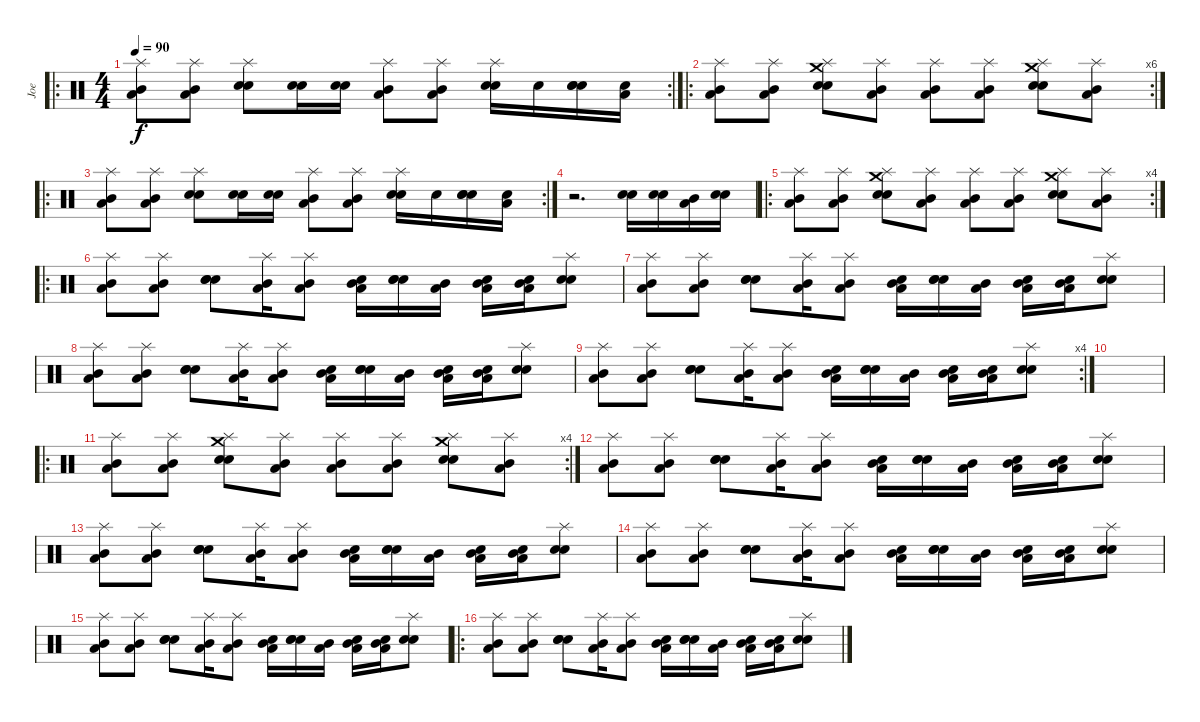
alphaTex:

\track ("Joe" "Joe") {instrument percussion}
\staff {score}
\articulation defaults
\ro
\rc 2
\ts (4 4)
\tempo 90
\clef neutral
\ks c
("Splash (hit)" "Low Floor Tom (hit)" "Mid Tom (hit)").8{dy f} ("Splash (hit)" "Low Floor Tom (hit)" "Mid Tom (hit)").8 ("Splash (hit)" "Snare (hit) 2" "Snare (hit) 2").8 ("Snare (hit) 2" "Snare (hit) 2").16 ("Snare (hit) 2" "Snare (hit) 2").16 ("Splash (hit)" "Low Floor Tom (hit)" "Mid Tom (hit)").8 ("Splash (hit)" "Low Floor Tom (hit)" "Mid Tom (hit)").8 ("Splash (hit)" "Snare (hit) 2" "Snare (hit) 2").16 "Electric Snare (hit)".16 ("Snare (hit) 2" "Snare (hit) 2" "Electric Snare (hit)").16 ("Electric Snare (hit)" "Low Tom (hit)").16 |
\ro
\rc 6
("Splash (hit)" "Low Floor Tom (hit)" "Mid Tom (hit)").8 ("Splash (hit)" "Low Floor Tom (hit)" "Mid Tom (hit)").8 ("Splash (hit)" "Snare (hit) 2" "Snare (hit) 2" "Crash medium (hit)").8 ("Splash (hit)" "Low Floor Tom (hit)" "Mid Tom (hit)").8 ("Splash (hit)" "Low Floor Tom (hit)" "Mid Tom (hit)").8 ("Splash (hit)" "Low Floor Tom (hit)" "Mid Tom (hit)").8 ("Splash (hit)" "Snare (hit) 2" "Snare (hit) 2" "Crash medium (hit)").8 ("Splash (hit)" "Low Floor Tom (hit)" "Mid Tom (hit)").8 |
\ro
\rc 2
("Splash (hit)" "Low Floor Tom (hit)" "Mid Tom (hit)").8 ("Splash (hit)" "Low Floor Tom (hit)" "Mid Tom (hit)").8 ("Splash (hit)" "Snare (hit) 2" "Snare (hit) 2").8 ("Snare (hit) 2" "Snare (hit) 2").16 ("Snare (hit) 2" "Snare (hit) 2").16 ("Splash (hit)" "Low Floor Tom (hit)" "Mid Tom (hit)").8 ("Splash (hit)" "Low Floor Tom (hit)" "Mid Tom (hit)").8 ("Splash (hit)" "Snare (hit) 2" "Snare (hit) 2").16 "Electric Snare (hit)".16 ("Snare (hit) 2" "Snare (hit) 2" "Electric Snare (hit)").16 ("Electric Snare (hit)" "Low Tom (hit)").16 |
r.2{d} ("Snare (hit) 2" "Snare (hit) 2").16 ("Snare (hit) 2" "Snare (hit) 2").16 ("Low Floor Tom (hit)" "Mid Tom (hit)").16 ("Snare (hit) 2" "Snare (hit) 2").16 |
\ro
\rc 4
("Splash (hit)" "Low Floor Tom (hit)" "Mid Tom (hit)").8 ("Splash (hit)" "Low Floor Tom (hit)" "Mid Tom (hit)").8 ("Splash (hit)" "Snare (hit) 2" "Snare (hit) 2" "Crash medium (hit)").8 ("Splash (hit)" "Low Floor Tom (hit)" "Mid Tom (hit)").8 ("Splash (hit)" "Low Floor Tom (hit)" "Mid Tom (hit)").8 ("Splash (hit)" "Low Floor Tom (hit)" "Mid Tom (hit)").8 ("Splash (hit)" "Snare (hit) 2" "Snare (hit) 2" "Crash medium (hit)").8 ("Splash (hit)" "Low Floor Tom (hit)" "Mid Tom (hit)").8 |
\ro
("Splash (hit)" "Low Floor Tom (hit)" "Mid Tom (hit)").8 ("Splash (hit)" "Low Floor Tom (hit)" "Mid Tom (hit)").8 ("Electric Snare (hit)" "Snare (hit) 2" "Snare (hit) 2").8 ("Splash (hit)" "Low Floor Tom (hit)" "Mid Tom (hit)").16 ("Splash (hit)" "Low Floor Tom (hit)" "Mid Tom (hit)").8 ("Electric Snare (hit)" "Low Floor Tom (hit)" "Mid Tom (hit)").16 ("Electric Snare (hit)" "Snare (hit) 2" "Snare (hit) 2").16 ("Low Floor Tom (hit)" "Mid Tom (hit)").16 ("Electric Snare (hit)" "Low Floor Tom (hit)" "Mid Tom (hit)").16 ("Electric Snare (hit)" "Low Floor Tom (hit)" "Mid Tom (hit)").16 ("Splash (hit)" "Snare (hit) 2" "Snare (hit) 2").8 |
("Splash (hit)" "Low Floor Tom (hit)" "Mid Tom (hit)").8 ("Splash (hit)" "Low Floor Tom (hit)" "Mid Tom (hit)").8 ("Electric Snare (hit)" "Snare (hit) 2" "Snare (hit) 2").8 ("Splash (hit)" "Low Floor Tom (hit)" "Mid Tom (hit)").16 ("Splash (hit)" "Low Floor Tom (hit)" "Mid Tom (hit)").8 ("Electric Snare (hit)" "Low Floor Tom (hit)" "Mid Tom (hit)").16 ("Electric Snare (hit)" "Snare (hit) 2" "Snare (hit) 2").16 ("Low Floor Tom (hit)" "Mid Tom (hit)").16 ("Electric Snare (hit)" "Low Floor Tom (hit)" "Mid Tom (hit)").16 ("Electric Snare (hit)" "Low Floor Tom (hit)" "Mid Tom (hit)").16 ("Splash (hit)" "Snare (hit) 2" "Snare (hit) 2").8 |
("Splash (hit)" "Low Floor Tom (hit)" "Mid Tom (hit)").8 ("Splash (hit)" "Low Floor Tom (hit)" "Mid Tom (hit)").8 ("Electric Snare (hit)" "Snare (hit) 2" "Snare (hit) 2").8 ("Splash (hit)" "Low Floor Tom (hit)" "Mid Tom (hit)").16 ("Splash (hit)" "Low Floor Tom (hit)" "Mid Tom (hit)").8 ("Electric Snare (hit)" "Low Floor Tom (hit)" "Mid Tom (hit)").16 ("Electric Snare (hit)" "Snare (hit) 2" "Snare (hit) 2").16 ("Low Floor Tom (hit)" "Mid Tom (hit)").16 ("Electric Snare (hit)" "Low Floor Tom (hit)" "Mid Tom (hit)").16 ("Electric Snare (hit)" "Low Floor Tom (hit)" "Mid Tom (hit)").16 ("Splash (hit)" "Snare (hit) 2" "Snare (hit) 2").8 |
\rc 4
("Splash (hit)" "Low Floor Tom (hit)" "Mid Tom (hit)").8 ("Splash (hit)" "Low Floor Tom (hit)" "Mid Tom (hit)").8 ("Electric Snare (hit)" "Snare (hit) 2" "Snare (hit) 2").8 ("Splash (hit)" "Low Floor Tom (hit)" "Mid Tom (hit)").16 ("Splash (hit)" "Low Floor Tom (hit)" "Mid Tom (hit)").8 ("Electric Snare (hit)" "Low Floor Tom (hit)" "Mid Tom (hit)").16 ("Electric Snare (hit)" "Snare (hit) 2" "Snare (hit) 2").16 ("Low Floor Tom (hit)" "Mid Tom (hit)").16 ("Electric Snare (hit)" "Low Floor Tom (hit)" "Mid Tom (hit)").16 ("Electric Snare (hit)" "Low Floor Tom (hit)" "Mid Tom (hit)").16 ("Splash (hit)" "Snare (hit) 2" "Snare (hit) 2").8 |
|
\ro
\rc 4
("Splash (hit)" "Low Floor Tom (hit)" "Mid Tom (hit)").8 ("Splash (hit)" "Low Floor Tom (hit)" "Mid Tom (hit)").8 ("Splash (hit)" "Snare (hit) 2" "Snare (hit) 2" "Crash medium (hit)").8 ("Splash (hit)" "Low Floor Tom (hit)" "Mid Tom (hit)").8 ("Splash (hit)" "Low Floor Tom (hit)" "Mid Tom (hit)").8 ("Splash (hit)" "Low Floor Tom (hit)" "Mid Tom (hit)").8 ("Splash (hit)" "Snare (hit) 2" "Snare (hit) 2" "Crash medium (hit)").8 ("Splash (hit)" "Low Floor Tom (hit)" "Mid Tom (hit)").8 |
("Splash (hit)" "Low Floor Tom (hit)" "Mid Tom (hit)").8 ("Splash (hit)" "Low Floor Tom (hit)" "Mid Tom (hit)").8 ("Electric Snare (hit)" "Snare (hit) 2" "Snare (hit) 2").8 ("Splash (hit)" "Low Floor Tom (hit)" "Mid Tom (hit)").16 ("Splash (hit)" "Low Floor Tom (hit)" "Mid Tom (hit)").8 ("Electric Snare (hit)" "Low Floor Tom (hit)" "Mid Tom (hit)").16 ("Electric Snare (hit)" "Snare (hit) 2" "Snare (hit) 2").16 ("Low Floor Tom (hit)" "Mid Tom (hit)").16 ("Electric Snare (hit)" "Low Floor Tom (hit)" "Mid Tom (hit)").16 ("Electric Snare (hit)" "Low Floor Tom (hit)" "Mid Tom (hit)").16 ("Splash (hit)" "Snare (hit) 2" "Snare (hit) 2").8 |
("Splash (hit)" "Low Floor Tom (hit)" "Mid Tom (hit)").8 ("Splash (hit)" "Low Floor Tom (hit)" "Mid Tom (hit)").8 ("Electric Snare (hit)" "Snare (hit) 2" "Snare (hit) 2").8 ("Splash (hit)" "Low Floor Tom (hit)" "Mid Tom (hit)").16 ("Splash (hit)" "Low Floor Tom (hit)" "Mid Tom (hit)").8 ("Electric Snare (hit)" "Low Floor Tom (hit)" "Mid Tom (hit)").16 ("Electric Snare (hit)" "Snare (hit) 2" "Snare (hit) 2").16 ("Low Floor Tom (hit)" "Mid Tom (hit)").16 ("Electric Snare (hit)" "Low Floor Tom (hit)" "Mid Tom (hit)").16 ("Electric Snare (hit)" "Low Floor Tom (hit)" "Mid Tom (hit)").16 ("Splash (hit)" "Snare (hit) 2" "Snare (hit) 2").8 |
("Splash (hit)" "Low Floor Tom (hit)" "Mid Tom (hit)").8 ("Splash (hit)" "Low Floor Tom (hit)" "Mid Tom (hit)").8 ("Electric Snare (hit)" "Snare (hit) 2" "Snare (hit) 2").8 ("Splash (hit)" "Low Floor Tom (hit)" "Mid Tom (hit)").16 ("Splash (hit)" "Low Floor Tom (hit)" "Mid Tom (hit)").8 ("Electric Snare (hit)" "Low Floor Tom (hit)" "Mid Tom (hit)").16 ("Electric Snare (hit)" "Snare (hit) 2" "Snare (hit) 2").16 ("Low Floor Tom (hit)" "Mid Tom (hit)").16 ("Electric Snare (hit)" "Low Floor Tom (hit)" "Mid Tom (hit)").16 ("Electric Snare (hit)" "Low Floor Tom (hit)" "Mid Tom (hit)").16 ("Splash (hit)" "Snare (hit) 2" "Snare (hit) 2").8 |
("Splash (hit)" "Low Floor Tom (hit)" "Mid Tom (hit)").8 ("Splash (hit)" "Low Floor Tom (hit)" "Mid Tom (hit)").8 ("Electric Snare (hit)" "Snare (hit) 2" "Snare (hit) 2").8 ("Splash (hit)" "Low Floor Tom (hit)" "Mid Tom (hit)").16 ("Splash (hit)" "Low Floor Tom (hit)" "Mid Tom (hit)").8 ("Electric Snare (hit)" "Low Floor Tom (hit)" "Mid Tom (hit)").16 ("Electric Snare (hit)" "Snare (hit) 2" "Snare (hit) 2").16 ("Low Floor Tom (hit)" "Mid Tom (hit)").16 ("Electric Snare (hit)" "Low Floor Tom (hit)" "Mid Tom (hit)").16 ("Electric Snare (hit)" "Low Floor Tom (hit)" "Mid Tom (hit)").16 ("Splash (hit)" "Snare (hit) 2" "Snare (hit) 2").8 |
\ro
("Splash (hit)" "Low Floor Tom (hit)" "Mid Tom (hit)").8 ("Splash (hit)" "Low Floor Tom (hit)" "Mid Tom (hit)").8 ("Electric Snare (hit)" "Snare (hit) 2" "Snare (hit) 2").8 ("Splash (hit)" "Low Floor Tom (hit)" "Mid Tom (hit)").16 ("Splash (hit)" "Low Floor Tom (hit)" "Mid Tom (hit)").8 ("Electric Snare (hit)" "Low Floor Tom (hit)" "Mid Tom (hit)").16 ("Electric Snare (hit)" "Snare (hit) 2" "Snare (hit) 2").16 ("Low Floor Tom (hit)" "Mid Tom (hit)").16 ("Electric Snare (hit)" "Low Floor Tom (hit)" "Mid Tom (hit)").16 ("Electric Snare (hit)" "Low Floor Tom (hit)" "Mid Tom (hit)").16 ("Splash (hit)" "Snare (hit) 2" "Snare (hit) 2").8
